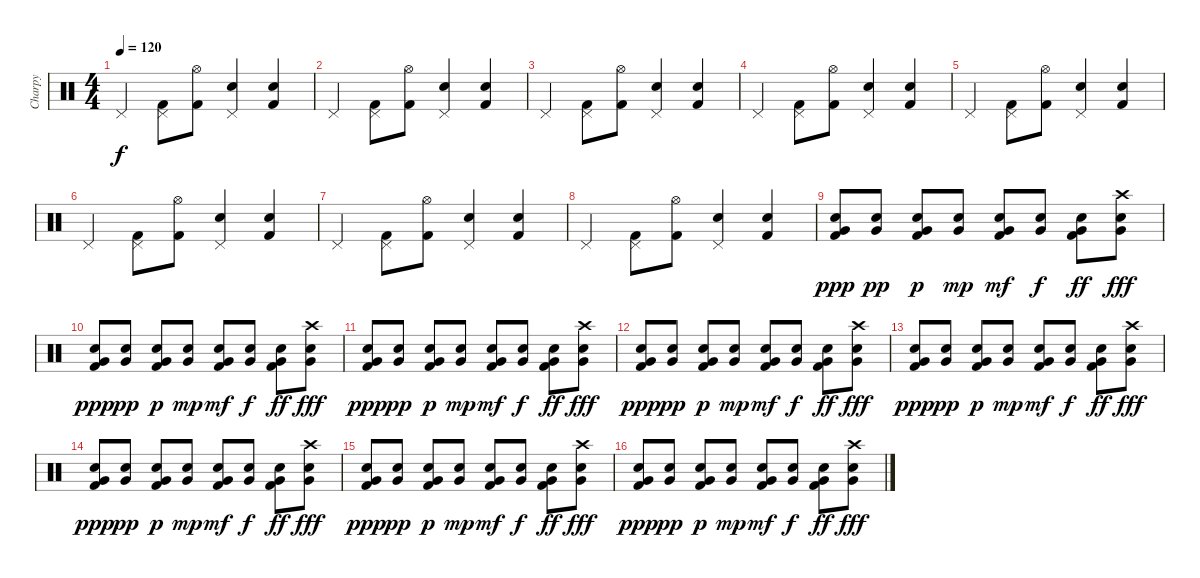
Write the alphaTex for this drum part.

\track ("Charpy" "Charpy") {instrument percussion}
\staff {score}
\articulation defaults
\ts (4 4)
\tempo 120
\clef neutral
\ks c "Pedal Hi-Hat (hit)".4{dy f}
("Pedal Hi-Hat (hit)" "Kick (hit) 2").8 ("Hi-Hat (open)" "Kick (hit) 2").8 ("Snare (hit) 2" "Pedal Hi-Hat (hit)").4 ("Snare (hit) 2" "Kick (hit) 2").4 |
"Pedal Hi-Hat (hit)".4 ("Pedal Hi-Hat (hit)" "Kick (hit) 2").8 ("Hi-Hat (open)" "Kick (hit) 2").8 ("Snare (hit) 2" "Pedal Hi-Hat (hit)").4 ("Snare (hit) 2" "Kick (hit) 2").4 |
"Pedal Hi-Hat (hit)".4 ("Pedal Hi-Hat (hit)" "Kick (hit) 2").8 ("Hi-Hat (open)" "Kick (hit) 2").8 ("Snare (hit) 2" "Pedal Hi-Hat (hit)").4 ("Snare (hit) 2" "Kick (hit) 2").4 |
"Pedal Hi-Hat (hit)".4 ("Pedal Hi-Hat (hit)" "Kick (hit) 2").8 ("Hi-Hat (open)" "Kick (hit) 2").8 ("Snare (hit) 2" "Pedal Hi-Hat (hit)").4 ("Snare (hit) 2" "Kick (hit) 2").4 |
"Pedal Hi-Hat (hit)".4 ("Pedal Hi-Hat (hit)" "Kick (hit) 2").8 ("Hi-Hat (open)" "Kick (hit) 2").8 ("Snare (hit) 2" "Pedal Hi-Hat (hit)").4 ("Snare (hit) 2" "Kick (hit) 2").4 |
"Pedal Hi-Hat (hit)".4 ("Pedal Hi-Hat (hit)" "Kick (hit) 2").8 ("Hi-Hat (open)" "Kick (hit) 2").8 ("Snare (hit) 2" "Pedal Hi-Hat (hit)").4 ("Snare (hit) 2" "Kick (hit) 2").4 |
"Pedal Hi-Hat (hit)".4 ("Pedal Hi-Hat (hit)" "Kick (hit) 2").8 ("Hi-Hat (open)" "Kick (hit) 2").8 ("Snare (hit) 2" "Pedal Hi-Hat (hit)").4 ("Snare (hit) 2" "Kick (hit) 2").4 |
"Pedal Hi-Hat (hit)".4 ("Pedal Hi-Hat (hit)" "Kick (hit) 2").8 ("Hi-Hat (open)" "Kick (hit) 2").8 ("Snare (hit) 2" "Pedal Hi-Hat (hit)").4 ("Snare (hit) 2" "Kick (hit) 2").4 |
("Snare (hit) 2" "Very Low Tom (hit)" "Kick (hit) 2").8{dy ppp} ("Snare (hit) 2" "Very Low Tom (hit)").8{dy pp} ("Snare (hit) 2" "Very Low Tom (hit)" "Kick (hit) 2").8{dy p} ("Snare (hit) 2" "Very Low Tom (hit)").8{dy mp} ("Snare (hit) 2" "Very Low Tom (hit)" "Kick (hit) 2").8{dy mf} ("Snare (hit) 2" "Very Low Tom (hit)").8{dy f} ("Snare (hit) 2" "Very Low Tom (hit)" "Kick (hit) 2").8{dy ff} ("Crash high (hit)" "Snare (hit) 2" "Very Low Tom (hit)").8{dy fff} |
("Snare (hit) 2" "Very Low Tom (hit)" "Kick (hit) 2").8{dy ppp} ("Snare (hit) 2" "Very Low Tom (hit)").8{dy pp} ("Snare (hit) 2" "Very Low Tom (hit)" "Kick (hit) 2").8{dy p} ("Snare (hit) 2" "Very Low Tom (hit)").8{dy mp} ("Snare (hit) 2" "Very Low Tom (hit)" "Kick (hit) 2").8{dy mf} ("Snare (hit) 2" "Very Low Tom (hit)").8{dy f} ("Snare (hit) 2" "Very Low Tom (hit)" "Kick (hit) 2").8{dy ff} ("Crash high (hit)" "Snare (hit) 2" "Very Low Tom (hit)").8{dy fff} |
("Snare (hit) 2" "Very Low Tom (hit)" "Kick (hit) 2").8{dy ppp} ("Snare (hit) 2" "Very Low Tom (hit)").8{dy pp} ("Snare (hit) 2" "Very Low Tom (hit)" "Kick (hit) 2").8{dy p} ("Snare (hit) 2" "Very Low Tom (hit)").8{dy mp} ("Snare (hit) 2" "Very Low Tom (hit)" "Kick (hit) 2").8{dy mf} ("Snare (hit) 2" "Very Low Tom (hit)").8{dy f} ("Snare (hit) 2" "Very Low Tom (hit)" "Kick (hit) 2").8{dy ff} ("Crash high (hit)" "Snare (hit) 2" "Very Low Tom (hit)").8{dy fff} |
("Snare (hit) 2" "Very Low Tom (hit)" "Kick (hit) 2").8{dy ppp} ("Snare (hit) 2" "Very Low Tom (hit)").8{dy pp} ("Snare (hit) 2" "Very Low Tom (hit)" "Kick (hit) 2").8{dy p} ("Snare (hit) 2" "Very Low Tom (hit)").8{dy mp} ("Snare (hit) 2" "Very Low Tom (hit)" "Kick (hit) 2").8{dy mf} ("Snare (hit) 2" "Very Low Tom (hit)").8{dy f} ("Snare (hit) 2" "Very Low Tom (hit)" "Kick (hit) 2").8{dy ff} ("Crash high (hit)" "Snare (hit) 2" "Very Low Tom (hit)").8{dy fff} |
("Snare (hit) 2" "Very Low Tom (hit)" "Kick (hit) 2").8{dy ppp} ("Snare (hit) 2" "Very Low Tom (hit)").8{dy pp} ("Snare (hit) 2" "Very Low Tom (hit)" "Kick (hit) 2").8{dy p} ("Snare (hit) 2" "Very Low Tom (hit)").8{dy mp} ("Snare (hit) 2" "Very Low Tom (hit)" "Kick (hit) 2").8{dy mf} ("Snare (hit) 2" "Very Low Tom (hit)").8{dy f} ("Snare (hit) 2" "Very Low Tom (hit)" "Kick (hit) 2").8{dy ff} ("Crash high (hit)" "Snare (hit) 2" "Very Low Tom (hit)").8{dy fff} |
("Snare (hit) 2" "Very Low Tom (hit)" "Kick (hit) 2").8{dy ppp} ("Snare (hit) 2" "Very Low Tom (hit)").8{dy pp} ("Snare (hit) 2" "Very Low Tom (hit)" "Kick (hit) 2").8{dy p} ("Snare (hit) 2" "Very Low Tom (hit)").8{dy mp} ("Snare (hit) 2" "Very Low Tom (hit)" "Kick (hit) 2").8{dy mf} ("Snare (hit) 2" "Very Low Tom (hit)").8{dy f} ("Snare (hit) 2" "Very Low Tom (hit)" "Kick (hit) 2").8{dy ff} ("Crash high (hit)" "Snare (hit) 2" "Very Low Tom (hit)").8{dy fff} |
("Snare (hit) 2" "Very Low Tom (hit)" "Kick (hit) 2").8{dy ppp} ("Snare (hit) 2" "Very Low Tom (hit)").8{dy pp} ("Snare (hit) 2" "Very Low Tom (hit)" "Kick (hit) 2").8{dy p} ("Snare (hit) 2" "Very Low Tom (hit)").8{dy mp} ("Snare (hit) 2" "Very Low Tom (hit)" "Kick (hit) 2").8{dy mf} ("Snare (hit) 2" "Very Low Tom (hit)").8{dy f} ("Snare (hit) 2" "Very Low Tom (hit)" "Kick (hit) 2").8{dy ff} ("Crash high (hit)" "Snare (hit) 2" "Very Low Tom (hit)").8{dy fff} |
("Snare (hit) 2" "Very Low Tom (hit)" "Kick (hit) 2").8{dy ppp} ("Snare (hit) 2" "Very Low Tom (hit)").8{dy pp} ("Snare (hit) 2" "Very Low Tom (hit)" "Kick (hit) 2").8{dy p} ("Snare (hit) 2" "Very Low Tom (hit)").8{dy mp} ("Snare (hit) 2" "Very Low Tom (hit)" "Kick (hit) 2").8{dy mf} ("Snare (hit) 2" "Very Low Tom (hit)").8{dy f} ("Snare (hit) 2" "Very Low Tom (hit)" "Kick (hit) 2").8{dy ff} ("Crash high (hit)" "Snare (hit) 2" "Very Low Tom (hit)").8{dy fff}
